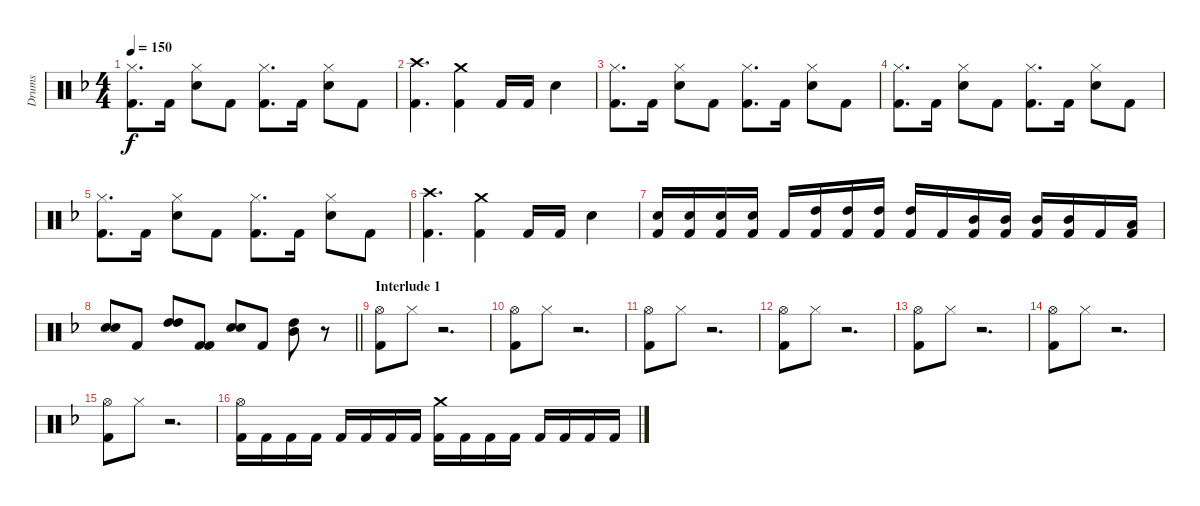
\track ("Drums" "Drums") {instrument percussion}
\staff {score}
\articulation defaults
\ts (4 4)
\tempo 150
\clef neutral
\ks f
("Kick (hit) 2" "Hi-Hat (closed)").8{d dy f} "Kick (hit) 2".16 ("Snare (hit) 2" "Hi-Hat (closed)").8 "Kick (hit) 2".8 ("Kick (hit) 2" "Hi-Hat (closed)").8{d} "Kick (hit) 2".16 ("Snare (hit) 2" "Hi-Hat (closed)").8 "Kick (hit) 2".8 |
("Kick (hit) 2" "Crash high (hit)").4{d} ("Kick (hit) 2" "Crash medium (hit)").4 "Kick (hit) 2".16 "Kick (hit) 2".16 "Snare (hit) 2".4 |
("Kick (hit) 2" "Hi-Hat (closed)").8{d} "Kick (hit) 2".16 ("Snare (hit) 2" "Hi-Hat (closed)").8 "Kick (hit) 2".8 ("Kick (hit) 2" "Hi-Hat (closed)").8{d} "Kick (hit) 2".16 ("Snare (hit) 2" "Hi-Hat (closed)").8 "Kick (hit) 2".8 |
("Kick (hit) 2" "Hi-Hat (closed)").8{d} "Kick (hit) 2".16 ("Snare (hit) 2" "Hi-Hat (closed)").8 "Kick (hit) 2".8 ("Kick (hit) 2" "Hi-Hat (closed)").8{d} "Kick (hit) 2".16 ("Snare (hit) 2" "Hi-Hat (closed)").8 "Kick (hit) 2".8 |
("Kick (hit) 2" "Hi-Hat (closed)").8{d} "Kick (hit) 2".16 ("Snare (hit) 2" "Hi-Hat (closed)").8 "Kick (hit) 2".8 ("Kick (hit) 2" "Hi-Hat (closed)").8{d} "Kick (hit) 2".16 ("Snare (hit) 2" "Hi-Hat (closed)").8 "Kick (hit) 2".8 |
("Kick (hit) 2" "Crash high (hit)").4{d} ("Kick (hit) 2" "Crash medium (hit)").4 "Kick (hit) 2".16 "Kick (hit) 2".16 "Snare (hit) 2".4 |
("Kick (hit) 2" "Snare (hit) 2").16 ("Kick (hit) 2" "Snare (hit) 2").16 ("Kick (hit) 2" "Snare (hit) 2").16 ("Kick (hit) 2" "Snare (hit) 2").16 "Kick (hit) 2".16 ("Kick (hit) 2" "High Tom (hit)").16 ("Kick (hit) 2" "High Tom (hit)").16 ("Kick (hit) 2" "High Tom (hit)").16 ("Kick (hit) 2" "High Tom (hit)").16 "Kick (hit) 2".16 ("Kick (hit) 2" "Mid Tom (hit)").16 ("Kick (hit) 2" "Mid Tom (hit)").16 ("Kick (hit) 2" "Mid Tom (hit)").16 ("Kick (hit) 2" "Mid Tom (hit)").16 "Kick (hit) 2".16 ("Kick (hit) 2" "Low Tom (hit)").16 |
\barLineRight lightlight
("Electric Snare (hit)" "Electric Snare (hit)").8{bd 480} "Kick (hit) 2".8 ("High Tom (hit)" "High Tom (hit)").8{bd 480} ("Kick (hit) 2" "Kick (hit) 2").8 ("Snare (hit) 2" "Electric Snare (hit)").8{bd 120} "Kick (hit) 2".8 ("High Tom (hit)" "Mid Tom (hit)").8{bd 480} r.8 |
\section ("" "Interlude 1")
("Kick (hit) 2" "Hi-Hat (open)").8 "Hi-Hat (closed)".8 r.2{d} |
("Kick (hit) 2" "Hi-Hat (open)").8 "Hi-Hat (closed)".8 r.2{d} |
("Kick (hit) 2" "Hi-Hat (open)").8 "Hi-Hat (closed)".8 r.2{d} |
("Kick (hit) 2" "Hi-Hat (open)").8 "Hi-Hat (closed)".8 r.2{d} |
("Kick (hit) 2" "Hi-Hat (open)").8 "Hi-Hat (closed)".8 r.2{d} |
("Kick (hit) 2" "Hi-Hat (open)").8 "Hi-Hat (closed)".8 r.2{d} |
("Kick (hit) 2" "Hi-Hat (open)").8 "Hi-Hat (closed)".8 r.2{d} |
("Kick (hit) 2" "Hi-Hat (open)").16 "Kick (hit) 2".16 "Kick (hit) 2".16 "Kick (hit) 2".16 "Kick (hit) 2".16 "Kick (hit) 2".16 "Kick (hit) 2".16 "Kick (hit) 2".16 ("Kick (hit) 2" "Crash medium (hit)").16 "Kick (hit) 2".16 "Kick (hit) 2".16 "Kick (hit) 2".16 "Kick (hit) 2".16 "Kick (hit) 2".16 "Kick (hit) 2".16 "Kick (hit) 2".16
